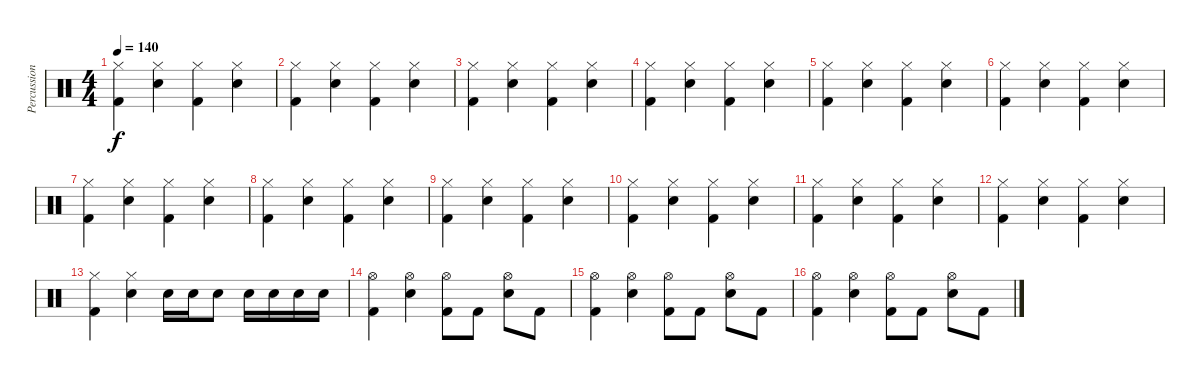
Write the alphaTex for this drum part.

\track ("Percussion" "Percussion") {instrument percussion}
\staff {score}
\articulation defaults
\ts (4 4)
\tempo 140
\clef neutral
\ks c
("Hi-Hat (closed)" "Kick (hit) 2").4{dy f} ("Hi-Hat (closed)" "Electric Snare (hit)").4 ("Hi-Hat (closed)" "Kick (hit) 2").4 ("Hi-Hat (closed)" "Electric Snare (hit)").4 |
("Hi-Hat (closed)" "Kick (hit) 2").4 ("Hi-Hat (closed)" "Electric Snare (hit)").4 ("Hi-Hat (closed)" "Kick (hit) 2").4 ("Hi-Hat (closed)" "Electric Snare (hit)").4 |
("Hi-Hat (closed)" "Kick (hit) 2").4 ("Hi-Hat (closed)" "Electric Snare (hit)").4 ("Hi-Hat (closed)" "Kick (hit) 2").4 ("Hi-Hat (closed)" "Electric Snare (hit)").4 |
("Hi-Hat (closed)" "Kick (hit) 2").4 ("Hi-Hat (closed)" "Electric Snare (hit)").4 ("Hi-Hat (closed)" "Kick (hit) 2").4 ("Hi-Hat (closed)" "Electric Snare (hit)").4 |
("Hi-Hat (closed)" "Kick (hit) 2").4 ("Hi-Hat (closed)" "Electric Snare (hit)").4 ("Hi-Hat (closed)" "Kick (hit) 2").4 ("Hi-Hat (closed)" "Electric Snare (hit)").4 |
("Hi-Hat (closed)" "Kick (hit) 2").4 ("Hi-Hat (closed)" "Electric Snare (hit)").4 ("Hi-Hat (closed)" "Kick (hit) 2").4 ("Hi-Hat (closed)" "Electric Snare (hit)").4 |
("Hi-Hat (closed)" "Kick (hit) 2").4 ("Hi-Hat (closed)" "Electric Snare (hit)").4 ("Hi-Hat (closed)" "Kick (hit) 2").4 ("Hi-Hat (closed)" "Electric Snare (hit)").4 |
("Hi-Hat (closed)" "Kick (hit) 2").4 ("Hi-Hat (closed)" "Electric Snare (hit)").4 ("Hi-Hat (closed)" "Kick (hit) 2").4 ("Hi-Hat (closed)" "Electric Snare (hit)").4 |
("Hi-Hat (closed)" "Kick (hit) 2").4 ("Hi-Hat (closed)" "Electric Snare (hit)").4 ("Hi-Hat (closed)" "Kick (hit) 2").4 ("Hi-Hat (closed)" "Electric Snare (hit)").4 |
("Hi-Hat (closed)" "Kick (hit) 2").4 ("Hi-Hat (closed)" "Electric Snare (hit)").4 ("Hi-Hat (closed)" "Kick (hit) 2").4 ("Hi-Hat (closed)" "Electric Snare (hit)").4 |
("Hi-Hat (closed)" "Kick (hit) 2").4 ("Hi-Hat (closed)" "Electric Snare (hit)").4 ("Hi-Hat (closed)" "Kick (hit) 2").4 ("Hi-Hat (closed)" "Electric Snare (hit)").4 |
("Hi-Hat (closed)" "Kick (hit) 2").4 ("Hi-Hat (closed)" "Electric Snare (hit)").4 ("Hi-Hat (closed)" "Kick (hit) 2").4 ("Hi-Hat (closed)" "Electric Snare (hit)").4 |
("Hi-Hat (closed)" "Kick (hit) 2").4 ("Hi-Hat (closed)" "Electric Snare (hit)").4 "Electric Snare (hit)".16 "Electric Snare (hit)".16 "Electric Snare (hit)".8 "Electric Snare (hit)".16 "Electric Snare (hit)".16 "Electric Snare (hit)".16 "Electric Snare (hit)".16 |
("Hi-Hat (open)" "Kick (hit) 2").4 ("Hi-Hat (open)" "Electric Snare (hit)").4 ("Hi-Hat (open)" "Kick (hit) 2").8 "Kick (hit) 2".8 ("Hi-Hat (open)" "Electric Snare (hit)").8 "Kick (hit) 2".8 |
("Hi-Hat (open)" "Kick (hit) 2").4 ("Hi-Hat (open)" "Electric Snare (hit)").4 ("Hi-Hat (open)" "Kick (hit) 2").8 "Kick (hit) 2".8 ("Hi-Hat (open)" "Electric Snare (hit)").8 "Kick (hit) 2".8 |
("Hi-Hat (open)" "Kick (hit) 2").4 ("Hi-Hat (open)" "Electric Snare (hit)").4 ("Hi-Hat (open)" "Kick (hit) 2").8 "Kick (hit) 2".8 ("Hi-Hat (open)" "Electric Snare (hit)").8 "Kick (hit) 2".8
